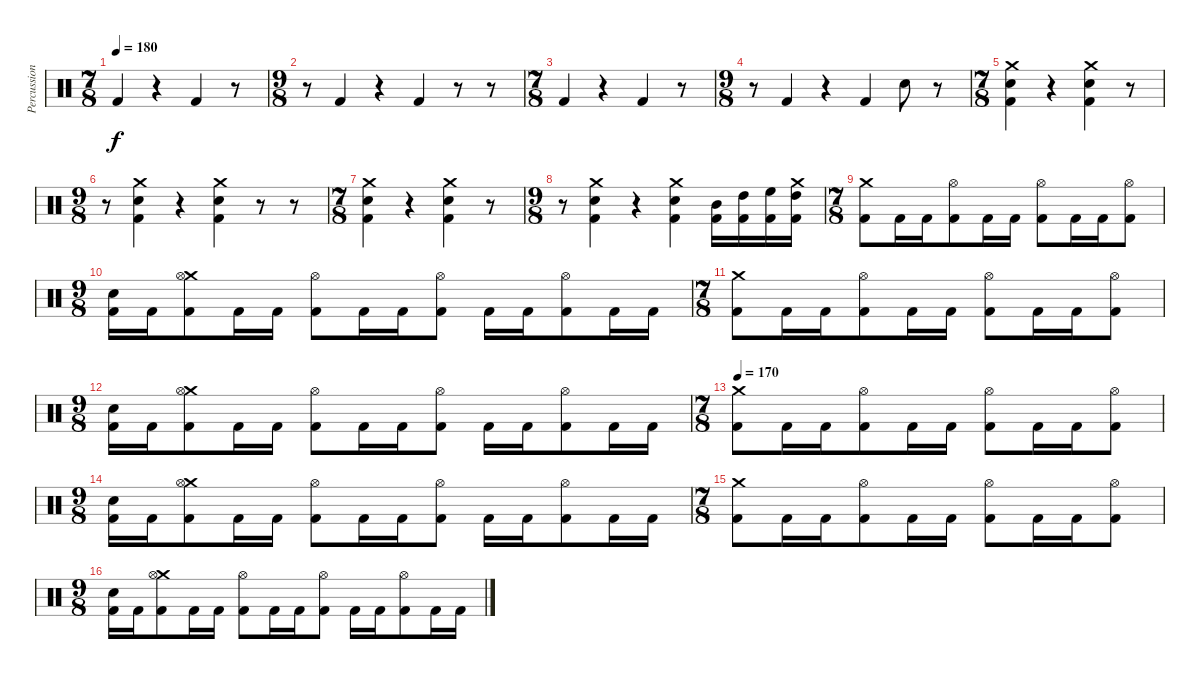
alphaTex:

\track ("Percussion" "Percussion") {instrument percussion}
\staff {score}
\articulation defaults
\ts (7 8)
\tempo 180
\clef neutral
\ks c "Kick (hit) 2".4{dy f}
r.4 "Kick (hit) 2".4 r.8 |
\ts (9 8)
r.8 "Kick (hit) 2".4 r.4 "Kick (hit) 2".4 r.8 r.8 |
\ts (7 8)
"Kick (hit) 2".4 r.4 "Kick (hit) 2".4 r.8 |
\ts (9 8)
r.8 "Kick (hit) 2".4 r.4 "Kick (hit) 2".4 "Snare (hit) 2".8 r.8 |
\ts (7 8)
("Crash medium (hit)" "Snare (hit) 2" "Kick (hit) 2").4 r.4 ("Crash medium (hit)" "Snare (hit) 2" "Kick (hit) 2").4 r.8 |
\ts (9 8)
r.8 ("Crash medium (hit)" "Snare (hit) 2" "Kick (hit) 2").4 r.4 ("Crash medium (hit)" "Snare (hit) 2" "Kick (hit) 2").4 r.8 r.8 |
\ts (7 8)
("Crash medium (hit)" "Snare (hit) 2" "Kick (hit) 2").4 r.4 ("Crash medium (hit)" "Snare (hit) 2" "Kick (hit) 2").4 r.8 |
\ts (9 8)
r.8 ("Crash medium (hit)" "Snare (hit) 2" "Kick (hit) 2").4 r.4 ("Crash medium (hit)" "Snare (hit) 2" "Kick (hit) 2").4 ("Mid Tom (hit)" "Kick (hit) 2").16 ("High Tom (hit)" "Kick (hit) 2").16 ("High Floor Tom (hit)" "Kick (hit) 2").16 ("Crash medium (hit)" "High Tom (hit)" "Kick (hit) 2").16 |
\ts (7 8)
("Crash medium (hit)" "Kick (hit) 2").8 "Kick (hit) 2".16 "Kick (hit) 2".16 ("Hi-Hat (open)" "Kick (hit) 2").8 "Kick (hit) 2".16 "Kick (hit) 2".16 ("Hi-Hat (open)" "Kick (hit) 2").8 "Kick (hit) 2".16 "Kick (hit) 2".16 ("Hi-Hat (open)" "Kick (hit) 2").8 |
\ts (9 8)
("Snare (hit) 2" "Kick (hit) 2").16 "Kick (hit) 2".16 ("Crash medium (hit)" "Hi-Hat (open)" "Kick (hit) 2").8 "Kick (hit) 2".16 "Kick (hit) 2".16 ("Hi-Hat (open)" "Kick (hit) 2").8 "Kick (hit) 2".16 "Kick (hit) 2".16 ("Hi-Hat (open)" "Kick (hit) 2").8 "Kick (hit) 2".16 "Kick (hit) 2".16 ("Hi-Hat (open)" "Kick (hit) 2").8 "Kick (hit) 2".16 "Kick (hit) 2".16 |
\ts (7 8)
("Crash medium (hit)" "Kick (hit) 2").8 "Kick (hit) 2".16 "Kick (hit) 2".16 ("Hi-Hat (open)" "Kick (hit) 2").8 "Kick (hit) 2".16 "Kick (hit) 2".16 ("Hi-Hat (open)" "Kick (hit) 2").8 "Kick (hit) 2".16 "Kick (hit) 2".16 ("Hi-Hat (open)" "Kick (hit) 2").8 |
\ts (9 8)
("Snare (hit) 2" "Kick (hit) 2").16 "Kick (hit) 2".16 ("Crash medium (hit)" "Hi-Hat (open)" "Kick (hit) 2").8 "Kick (hit) 2".16 "Kick (hit) 2".16 ("Hi-Hat (open)" "Kick (hit) 2").8 "Kick (hit) 2".16 "Kick (hit) 2".16 ("Hi-Hat (open)" "Kick (hit) 2").8 "Kick (hit) 2".16 "Kick (hit) 2".16 ("Hi-Hat (open)" "Kick (hit) 2").8 "Kick (hit) 2".16 "Kick (hit) 2".16 |
\ts (7 8)
\tempo 170
("Crash medium (hit)" "Kick (hit) 2").8 "Kick (hit) 2".16 "Kick (hit) 2".16 ("Hi-Hat (open)" "Kick (hit) 2").8 "Kick (hit) 2".16 "Kick (hit) 2".16 ("Hi-Hat (open)" "Kick (hit) 2").8 "Kick (hit) 2".16 "Kick (hit) 2".16 ("Hi-Hat (open)" "Kick (hit) 2").8 |
\ts (9 8)
("Snare (hit) 2" "Kick (hit) 2").16 "Kick (hit) 2".16 ("Crash medium (hit)" "Hi-Hat (open)" "Kick (hit) 2").8 "Kick (hit) 2".16 "Kick (hit) 2".16 ("Hi-Hat (open)" "Kick (hit) 2").8 "Kick (hit) 2".16 "Kick (hit) 2".16 ("Hi-Hat (open)" "Kick (hit) 2").8 "Kick (hit) 2".16 "Kick (hit) 2".16 ("Hi-Hat (open)" "Kick (hit) 2").8 "Kick (hit) 2".16 "Kick (hit) 2".16 |
\ts (7 8)
("Crash medium (hit)" "Kick (hit) 2").8 "Kick (hit) 2".16 "Kick (hit) 2".16 ("Hi-Hat (open)" "Kick (hit) 2").8 "Kick (hit) 2".16 "Kick (hit) 2".16 ("Hi-Hat (open)" "Kick (hit) 2").8 "Kick (hit) 2".16 "Kick (hit) 2".16 ("Hi-Hat (open)" "Kick (hit) 2").8 |
\ts (9 8)
("Snare (hit) 2" "Kick (hit) 2").16 "Kick (hit) 2".16 ("Crash medium (hit)" "Hi-Hat (open)" "Kick (hit) 2").8 "Kick (hit) 2".16 "Kick (hit) 2".16 ("Hi-Hat (open)" "Kick (hit) 2").8 "Kick (hit) 2".16 "Kick (hit) 2".16 ("Hi-Hat (open)" "Kick (hit) 2").8 "Kick (hit) 2".16 "Kick (hit) 2".16 ("Hi-Hat (open)" "Kick (hit) 2").8 "Kick (hit) 2".16 "Kick (hit) 2".16
